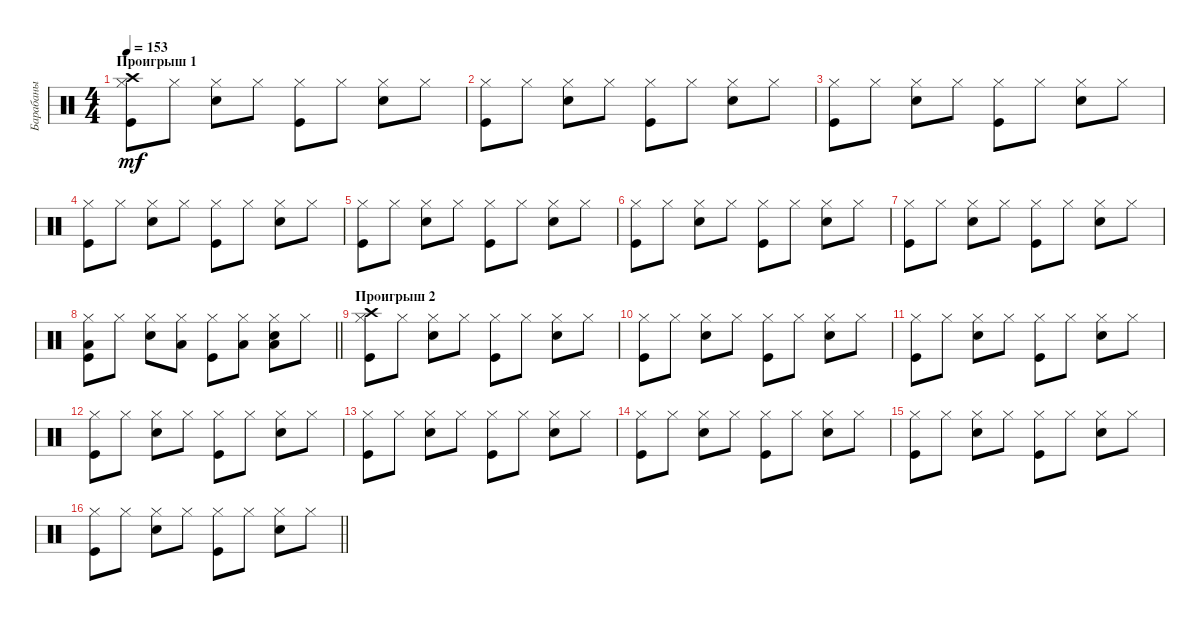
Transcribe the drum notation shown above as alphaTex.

\track ("Барабаны" "Барабаны") {instrument percussion}
\staff {score}
\articulation defaults
\ts (4 4)
\section ("" "Проигрыш 1")
\tempo 153
\clef neutral
\ks c
("Kick (hit)" "Hi-Hat (closed)" "Crash high (hit)").8{dy mf} "Hi-Hat (closed)".8 ("Snare (hit) 2" "Hi-Hat (closed)").8 "Hi-Hat (closed)".8 ("Kick (hit)" "Hi-Hat (closed)").8 "Hi-Hat (closed)".8 ("Snare (hit) 2" "Hi-Hat (closed)").8 "Hi-Hat (closed)".8 |
("Kick (hit)" "Hi-Hat (closed)").8 "Hi-Hat (closed)".8 ("Snare (hit) 2" "Hi-Hat (closed)").8 "Hi-Hat (closed)".8 ("Kick (hit)" "Hi-Hat (closed)").8 "Hi-Hat (closed)".8 ("Snare (hit) 2" "Hi-Hat (closed)").8 "Hi-Hat (closed)".8 |
("Kick (hit)" "Hi-Hat (closed)").8 "Hi-Hat (closed)".8 ("Snare (hit) 2" "Hi-Hat (closed)").8 "Hi-Hat (closed)".8 ("Kick (hit)" "Hi-Hat (closed)").8 "Hi-Hat (closed)".8 ("Snare (hit) 2" "Hi-Hat (closed)").8 "Hi-Hat (closed)".8 |
("Kick (hit)" "Hi-Hat (closed)").8 "Hi-Hat (closed)".8 ("Snare (hit) 2" "Hi-Hat (closed)").8 "Hi-Hat (closed)".8 ("Kick (hit)" "Hi-Hat (closed)").8 "Hi-Hat (closed)".8 ("Snare (hit) 2" "Hi-Hat (closed)").8 "Hi-Hat (closed)".8 |
("Kick (hit)" "Hi-Hat (closed)").8 "Hi-Hat (closed)".8 ("Snare (hit) 2" "Hi-Hat (closed)").8 "Hi-Hat (closed)".8 ("Kick (hit)" "Hi-Hat (closed)").8 "Hi-Hat (closed)".8 ("Snare (hit) 2" "Hi-Hat (closed)").8 "Hi-Hat (closed)".8 |
("Kick (hit)" "Hi-Hat (closed)").8 "Hi-Hat (closed)".8 ("Snare (hit) 2" "Hi-Hat (closed)").8 "Hi-Hat (closed)".8 ("Kick (hit)" "Hi-Hat (closed)").8 "Hi-Hat (closed)".8 ("Snare (hit) 2" "Hi-Hat (closed)").8 "Hi-Hat (closed)".8 |
("Kick (hit)" "Hi-Hat (closed)").8 "Hi-Hat (closed)".8 ("Snare (hit) 2" "Hi-Hat (closed)").8 "Hi-Hat (closed)".8 ("Kick (hit)" "Hi-Hat (closed)").8 "Hi-Hat (closed)".8 ("Snare (hit) 2" "Hi-Hat (closed)").8 "Hi-Hat (closed)".8 |
\barLineRight lightlight
("Kick (hit)" "Hi-Hat (closed)" "Low Tom (hit)").8 "Hi-Hat (closed)".8 ("Snare (hit) 2" "Hi-Hat (closed)").8 ("Hi-Hat (closed)" "Low Floor Tom (hit)").8 ("Kick (hit)" "Hi-Hat (closed)").8 ("Hi-Hat (closed)" "Low Floor Tom (hit)").8 ("Snare (hit) 2" "Hi-Hat (closed)" "Low Floor Tom (hit)").8 "Hi-Hat (closed)".8 |
\section ("" "Проигрыш 2")
("Kick (hit)" "Hi-Hat (closed)" "Crash high (hit)").8 "Hi-Hat (closed)".8 ("Snare (hit) 2" "Hi-Hat (closed)").8 "Hi-Hat (closed)".8 ("Kick (hit)" "Hi-Hat (closed)").8 "Hi-Hat (closed)".8 ("Snare (hit) 2" "Hi-Hat (closed)").8 "Hi-Hat (closed)".8 |
("Kick (hit)" "Hi-Hat (closed)").8 "Hi-Hat (closed)".8 ("Snare (hit) 2" "Hi-Hat (closed)").8 "Hi-Hat (closed)".8 ("Kick (hit)" "Hi-Hat (closed)").8 "Hi-Hat (closed)".8 ("Snare (hit) 2" "Hi-Hat (closed)").8 "Hi-Hat (closed)".8 |
("Kick (hit)" "Hi-Hat (closed)").8 "Hi-Hat (closed)".8 ("Snare (hit) 2" "Hi-Hat (closed)").8 "Hi-Hat (closed)".8 ("Kick (hit)" "Hi-Hat (closed)").8 "Hi-Hat (closed)".8 ("Snare (hit) 2" "Hi-Hat (closed)").8 "Hi-Hat (closed)".8 |
("Kick (hit)" "Hi-Hat (closed)").8 "Hi-Hat (closed)".8 ("Snare (hit) 2" "Hi-Hat (closed)").8 "Hi-Hat (closed)".8 ("Kick (hit)" "Hi-Hat (closed)").8 "Hi-Hat (closed)".8 ("Snare (hit) 2" "Hi-Hat (closed)").8 "Hi-Hat (closed)".8 |
("Kick (hit)" "Hi-Hat (closed)").8 "Hi-Hat (closed)".8 ("Snare (hit) 2" "Hi-Hat (closed)").8 "Hi-Hat (closed)".8 ("Kick (hit)" "Hi-Hat (closed)").8 "Hi-Hat (closed)".8 ("Snare (hit) 2" "Hi-Hat (closed)").8 "Hi-Hat (closed)".8 |
("Kick (hit)" "Hi-Hat (closed)").8 "Hi-Hat (closed)".8 ("Snare (hit) 2" "Hi-Hat (closed)").8 "Hi-Hat (closed)".8 ("Kick (hit)" "Hi-Hat (closed)").8 "Hi-Hat (closed)".8 ("Snare (hit) 2" "Hi-Hat (closed)").8 "Hi-Hat (closed)".8 |
("Kick (hit)" "Hi-Hat (closed)").8 "Hi-Hat (closed)".8 ("Snare (hit) 2" "Hi-Hat (closed)").8 "Hi-Hat (closed)".8 ("Kick (hit)" "Hi-Hat (closed)").8 "Hi-Hat (closed)".8 ("Snare (hit) 2" "Hi-Hat (closed)").8 "Hi-Hat (closed)".8 |
\barLineRight lightlight
("Kick (hit)" "Hi-Hat (closed)").8 "Hi-Hat (closed)".8 ("Snare (hit) 2" "Hi-Hat (closed)").8 "Hi-Hat (closed)".8 ("Kick (hit)" "Hi-Hat (closed)").8 "Hi-Hat (closed)".8 ("Snare (hit) 2" "Hi-Hat (closed)").8 "Hi-Hat (closed)".8
